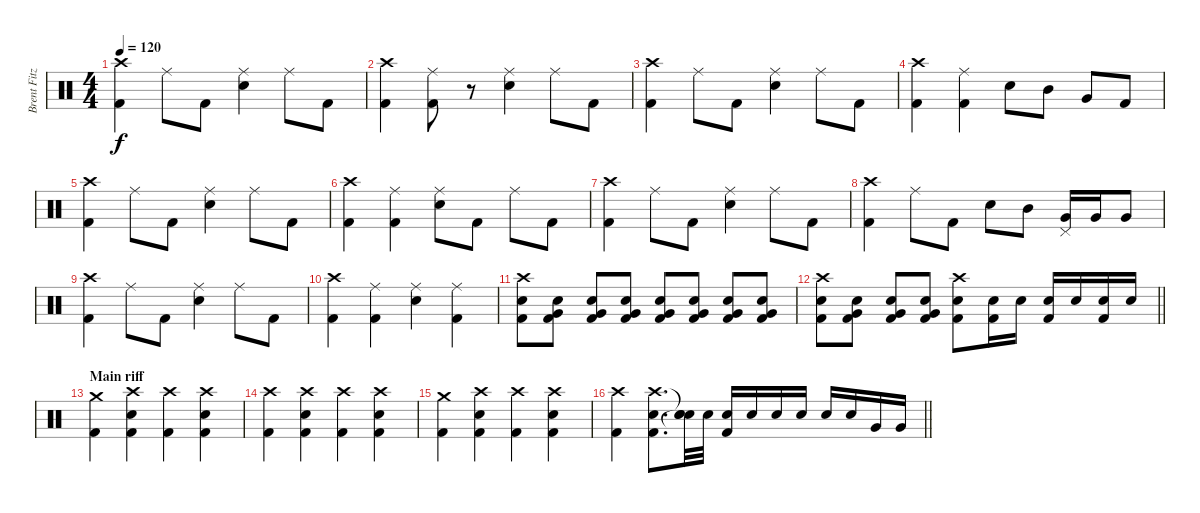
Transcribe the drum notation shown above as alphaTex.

\track ("Brent Fitz" "Brent Fitz") {instrument percussion}
\staff {score}
\articulation defaults
\ts (4 4)
\tempo 120
\clef neutral
\ks c
("Crash high (hit)" "Kick (hit) 2").4{dy f} "Ride (middle)".8 "Kick (hit) 2".8 ("Ride (middle)" "Electric Snare (hit)").4 "Ride (middle)".8 "Kick (hit) 2".8 |
("Crash high (hit)" "Kick (hit) 2").4 ("Ride (middle)" "Kick (hit) 2").8 r.8 ("Ride (middle)" "Electric Snare (hit)").4 "Ride (middle)".8 "Kick (hit) 2".8 |
("Crash high (hit)" "Kick (hit) 2").4 "Ride (middle)".8 "Kick (hit) 2".8 ("Ride (middle)" "Electric Snare (hit)").4 "Ride (middle)".8 "Kick (hit) 2".8 |
("Crash high (hit)" "Kick (hit) 2").4 ("Ride (middle)" "Kick (hit) 2").4 "Electric Snare (hit)".8 "Mid Tom (hit)".8 "Very Low Tom (hit)".8 "Kick (hit) 2".8 |
("Crash high (hit)" "Kick (hit) 2").4 "Ride (middle)".8 "Kick (hit) 2".8 ("Ride (middle)" "Electric Snare (hit)").4 "Ride (middle)".8 "Kick (hit) 2".8 |
("Crash high (hit)" "Kick (hit) 2").4 ("Ride (middle)" "Kick (hit) 2").4 ("Ride (middle)" "Electric Snare (hit)").8 "Kick (hit) 2".8 "Ride (middle)".8 "Kick (hit) 2".8 |
("Crash high (hit)" "Kick (hit) 2").4 "Ride (middle)".8 "Kick (hit) 2".8 ("Ride (middle)" "Electric Snare (hit)").4 "Ride (middle)".8 "Kick (hit) 2".8 |
("Crash high (hit)" "Kick (hit) 2").4 "Ride (middle)".8 "Kick (hit) 2".8 "Electric Snare (hit)".8 "Mid Tom (hit)".8 ("Very Low Tom (hit)" "Pedal Hi-Hat (hit)").16 "Very Low Tom (hit)".16 "Very Low Tom (hit)".8 |
("Crash high (hit)" "Kick (hit) 2").4 "Ride (middle)".8 "Kick (hit) 2".8 ("Ride (middle)" "Electric Snare (hit)").4 "Ride (middle)".8 "Kick (hit) 2".8 |
("Crash high (hit)" "Kick (hit) 2").4 ("Ride (middle)" "Kick (hit) 2").4 ("Ride (middle)" "Electric Snare (hit)").4 ("Ride (middle)" "Kick (hit) 2").4 |
("Crash high (hit)" "Electric Snare (hit)" "Kick (hit) 2").8 ("Electric Snare (hit)" "Very Low Tom (hit)" "Kick (hit) 2").8 ("Electric Snare (hit)" "Very Low Tom (hit)" "Kick (hit) 2").8 ("Electric Snare (hit)" "Very Low Tom (hit)" "Kick (hit) 2").8 ("Electric Snare (hit)" "Very Low Tom (hit)" "Kick (hit) 2").8 ("Electric Snare (hit)" "Very Low Tom (hit)" "Kick (hit) 2").8 ("Electric Snare (hit)" "Very Low Tom (hit)" "Kick (hit) 2").8 ("Electric Snare (hit)" "Very Low Tom (hit)" "Kick (hit) 2").8 |
\barLineRight lightlight
("Crash high (hit)" "Electric Snare (hit)" "Kick (hit) 2").8 ("Electric Snare (hit)" "Very Low Tom (hit)" "Kick (hit) 2").8 ("Electric Snare (hit)" "Very Low Tom (hit)" "Kick (hit) 2").8 ("Electric Snare (hit)" "Very Low Tom (hit)" "Kick (hit) 2").8 ("Crash high (hit)" "Electric Snare (hit)" "Kick (hit) 2").8 ("Electric Snare (hit)" "Kick (hit) 2").16 "Electric Snare (hit)".16 ("Electric Snare (hit)" "Kick (hit) 2").16 "Electric Snare (hit)".16 ("Electric Snare (hit)" "Kick (hit) 2").16 "Electric Snare (hit)".16 |
\section ("" "Main riff")
("Crash medium (hit)" "Kick (hit) 2").4 ("Crash high (hit)" "Electric Snare (hit)" "Kick (hit) 2").4 ("Crash high (hit)" "Kick (hit) 2").4 ("Crash high (hit)" "Electric Snare (hit)" "Kick (hit) 2").4 |
("Crash high (hit)" "Kick (hit) 2").4 ("Crash high (hit)" "Electric Snare (hit)" "Kick (hit) 2").4 ("Crash high (hit)" "Kick (hit) 2").4 ("Crash high (hit)" "Electric Snare (hit)" "Kick (hit) 2").4 |
("Crash medium (hit)" "Kick (hit) 2").4 ("Crash high (hit)" "Electric Snare (hit)" "Kick (hit) 2").4 ("Crash high (hit)" "Kick (hit) 2").4 ("Crash high (hit)" "Electric Snare (hit)" "Kick (hit) 2").4 |
\barLineRight lightlight
("Crash high (hit)" "Kick (hit) 2").4 ("Crash high (hit)" "Electric Snare (hit)" "Kick (hit) 2").8{d} ("Snare (hit)"{t} "Electric Snare (hit)" "Snare (hit)"{t}).32 "Electric Snare (hit)".32 ("Electric Snare (hit)" "Kick (hit) 2").16 "Electric Snare (hit)".16 "Electric Snare (hit)".16 "Electric Snare (hit)".16 "Electric Snare (hit)".16 "Electric Snare (hit)".16 "Very Low Tom (hit)".16 "Very Low Tom (hit)".16
